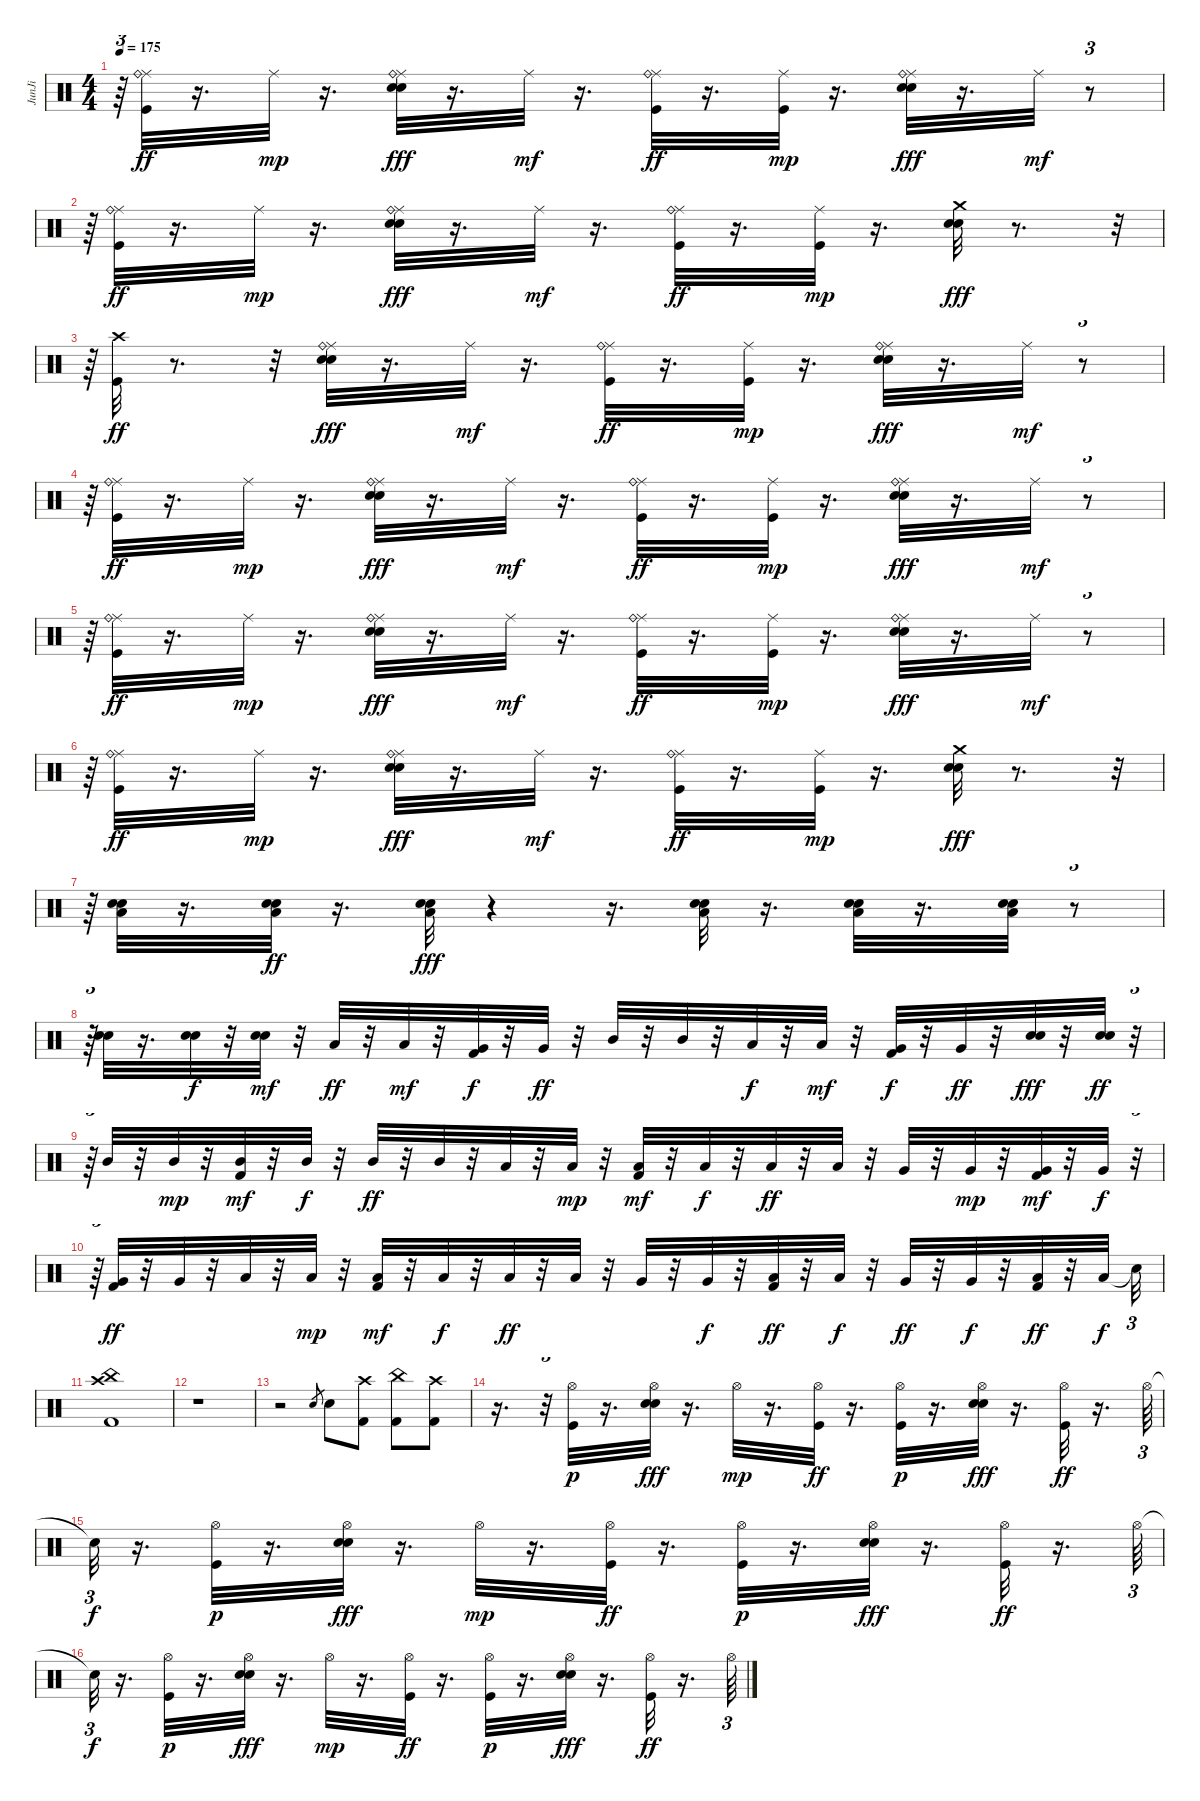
\track ("JunJi" "JunJi") {instrument percussion}
\staff {score}
\articulation defaults
\ts (4 4)
\tempo 175
\clef neutral
\ks c
r.64{tu (3 2) dy mf} ("Ride (middle)" "Ride (bell)" "Kick (hit)").32{dy ff} r.16{d} "Ride (middle)".32{dy mp} r.16{d} ("Ride (middle)" "Ride (bell)" "Electric Snare (hit)" "Snare (hit) 2").32{dy fff} r.16{d} "Ride (middle)".32{dy mf} r.16{d} ("Ride (middle)" "Ride (bell)" "Kick (hit)").32{dy ff} r.16{d} ("Ride (middle)" "Kick (hit)").32{dy mp} r.16{d} ("Ride (middle)" "Ride (bell)" "Electric Snare (hit)" "Snare (hit) 2").32{dy fff} r.16{d} "Ride (middle)".32{dy mf} r.8{tu (3 2)} |
r.64{tu (3 2)} ("Ride (middle)" "Ride (bell)" "Kick (hit)").32{dy ff} r.16{d} "Ride (middle)".32{dy mp} r.16{d} ("Ride (middle)" "Ride (bell)" "Electric Snare (hit)" "Snare (hit) 2").32{dy fff} r.16{d} "Ride (middle)".32{dy mf} r.16{d} ("Ride (middle)" "Ride (bell)" "Kick (hit)").32{dy ff} r.16{d} ("Ride (middle)" "Kick (hit)").32{dy mp} r.16{d} ("Crash medium (hit)" "Electric Snare (hit)" "Snare (hit) 2").32{dy fff} r.8{d} r.32{tu (3 2)} |
r.64{tu (3 2)} ("Crash high (hit)" "Kick (hit)").32{dy ff} r.8{d} r.32 ("Ride (middle)" "Ride (bell)" "Electric Snare (hit)" "Snare (hit) 2").32{dy fff} r.16{d} "Ride (middle)".32{dy mf} r.16{d} ("Ride (middle)" "Ride (bell)" "Kick (hit)").32{dy ff} r.16{d} ("Ride (middle)" "Kick (hit)").32{dy mp} r.16{d} ("Ride (middle)" "Ride (bell)" "Electric Snare (hit)" "Snare (hit) 2").32{dy fff} r.16{d} "Ride (middle)".32{dy mf} r.8{tu (3 2)} |
r.64{tu (3 2)} ("Ride (middle)" "Ride (bell)" "Kick (hit)").32{dy ff} r.16{d} "Ride (middle)".32{dy mp} r.16{d} ("Ride (middle)" "Ride (bell)" "Electric Snare (hit)" "Snare (hit) 2").32{dy fff} r.16{d} "Ride (middle)".32{dy mf} r.16{d} ("Ride (middle)" "Ride (bell)" "Kick (hit)").32{dy ff} r.16{d} ("Ride (middle)" "Kick (hit)").32{dy mp} r.16{d} ("Ride (middle)" "Ride (bell)" "Electric Snare (hit)" "Snare (hit) 2").32{dy fff} r.16{d} "Ride (middle)".32{dy mf} r.8{tu (3 2)} |
r.64{tu (3 2)} ("Ride (middle)" "Ride (bell)" "Kick (hit)").32{dy ff} r.16{d} "Ride (middle)".32{dy mp} r.16{d} ("Ride (middle)" "Ride (bell)" "Electric Snare (hit)" "Snare (hit) 2").32{dy fff} r.16{d} "Ride (middle)".32{dy mf} r.16{d} ("Ride (middle)" "Ride (bell)" "Kick (hit)").32{dy ff} r.16{d} ("Ride (middle)" "Kick (hit)").32{dy mp} r.16{d} ("Ride (middle)" "Ride (bell)" "Electric Snare (hit)" "Snare (hit) 2").32{dy fff} r.16{d} "Ride (middle)".32{dy mf} r.8{tu (3 2)} |
r.64{tu (3 2)} ("Ride (middle)" "Ride (bell)" "Kick (hit)").32{dy ff} r.16{d} "Ride (middle)".32{dy mp} r.16{d} ("Ride (middle)" "Ride (bell)" "Electric Snare (hit)" "Snare (hit) 2").32{dy fff} r.16{d} "Ride (middle)".32{dy mf} r.16{d} ("Ride (middle)" "Ride (bell)" "Kick (hit)").32{dy ff} r.16{d} ("Ride (middle)" "Kick (hit)").32{dy mp} r.16{d} ("Crash medium (hit)" "Electric Snare (hit)" "Snare (hit) 2").32{dy fff} r.8{d} r.32{tu (3 2)} |
r.64{tu (3 2)} ("Electric Snare (hit)" "Low Floor Tom (hit)" "Snare (hit) 2").32 r.16{d} ("Electric Snare (hit)" "Low Floor Tom (hit)" "Snare (hit) 2").32{dy ff} r.16{d} ("Electric Snare (hit)" "Low Floor Tom (hit)" "Snare (hit) 2").32{dy fff} r.4 r.16{d} ("Electric Snare (hit)" "Low Floor Tom (hit)" "Snare (hit) 2").32 r.16{d} ("Electric Snare (hit)" "Low Floor Tom (hit)" "Snare (hit) 2").32 r.16{d} ("Electric Snare (hit)" "Low Floor Tom (hit)" "Snare (hit) 2").32 r.8{tu (3 2)} |
r.64{tu (3 2)} ("Electric Snare (hit)" "Snare (hit) 2").32 r.16{d} ("Electric Snare (hit)" "Snare (hit) 2").32{dy f} r.32 ("Electric Snare (hit)" "Snare (hit) 2").32{dy mf} r.32 "Low Tom (hit)".32{dy ff} r.32 "Low Tom (hit)".32{dy mf} r.32 ("Very Low Tom (hit)" "Kick (hit) 2").32{dy f} r.32 "Very Low Tom (hit)".32{dy ff} r.32 "Mid Tom (hit)".32 r.32 "Mid Tom (hit)".32 r.32 "Low Tom (hit)".32{dy f} r.32 "Low Tom (hit)".32{dy mf} r.32 ("Very Low Tom (hit)" "Kick (hit) 2").32{dy f} r.32 "Very Low Tom (hit)".32{dy ff} r.32 ("Electric Snare (hit)" "Snare (hit) 2").32{dy fff} r.32 ("Electric Snare (hit)" "Snare (hit) 2").32{dy ff} r.32{tu (3 2)} |
r.64{tu (3 2)} "Mid Tom (hit)".32 r.32 "Mid Tom (hit)".32{dy mp} r.32 ("Mid Tom (hit)" "Kick (hit) 2").32{dy mf} r.32 "Mid Tom (hit)".32{dy f} r.32 "Mid Tom (hit)".32{dy ff} r.32 "Mid Tom (hit)".32 r.32 "Low Tom (hit)".32 r.32 "Low Tom (hit)".32{dy mp} r.32 ("Low Tom (hit)" "Kick (hit) 2").32{dy mf} r.32 "Low Tom (hit)".32{dy f} r.32 "Low Tom (hit)".32{dy ff} r.32 "Low Tom (hit)".32 r.32 "Very Low Tom (hit)".32 r.32 "Very Low Tom (hit)".32{dy mp} r.32 ("Very Low Tom (hit)" "Kick (hit) 2").32{dy mf} r.32 "Very Low Tom (hit)".32{dy f} r.32{tu (3 2)} |
r.64{tu (3 2)} ("Very Low Tom (hit)" "Kick (hit) 2").32{dy ff} r.32 "Very Low Tom (hit)".32 r.32 "Low Floor Tom (hit)".32 r.32 "Low Floor Tom (hit)".32{dy mp} r.32 ("Low Floor Tom (hit)" "Kick (hit) 2").32{dy mf} r.32 "Low Floor Tom (hit)".32{dy f} r.32 "Low Floor Tom (hit)".32{dy ff} r.32 "Low Floor Tom (hit)".32 r.32 "Very Low Tom (hit)".32 r.32 "Very Low Tom (hit)".32{dy f} r.32 ("Low Floor Tom (hit)" "Kick (hit) 2").32{dy ff} r.32 "Low Floor Tom (hit)".32{dy f} r.32 "Very Low Tom (hit)".32{dy ff} r.32 "Very Low Tom (hit)".32{dy f} r.32 ("Low Floor Tom (hit)" "Kick (hit) 2").32{dy ff} r.32 "Low Floor Tom (hit)".32{dy f} "Snare (hit)"{t}.32{tu (3 2)} |
("Crash high (hit)" "China (hit)" "Kick (hit) 2").1 |
r.1 |
r.2 "Snare (hit) 2".8{gr} "Snare (hit) 2".8 ("Crash high (hit)" "Kick (hit) 2").8 ("China (hit)" "Kick (hit) 2").8 ("Crash high (hit)" "Kick (hit) 2").8 |
r.16{d} r.32{tu (3 2)} ("Hi-Hat (open)" "Kick (hit)").32{dy p} r.16{d} ("Hi-Hat (open)" "Electric Snare (hit)" "Snare (hit) 2").32{dy fff} r.16{d} "Hi-Hat (open)".32{dy mp} r.16{d} ("Hi-Hat (open)" "Kick (hit)").32{dy ff} r.16{d} ("Hi-Hat (open)" "Kick (hit)").32{dy p} r.16{d} ("Hi-Hat (open)" "Electric Snare (hit)" "Snare (hit) 2").32{dy fff} r.16{d} ("Hi-Hat (open)" "Kick (hit)").32{dy ff} r.16{d} "Hi-Hat (open)".64{tu (3 2)} |
"Snare (hit)"{t}.32{tu (3 2) dy f} r.16{d} ("Hi-Hat (open)" "Kick (hit)").32{dy p} r.16{d} ("Hi-Hat (open)" "Electric Snare (hit)" "Snare (hit) 2").32{dy fff} r.16{d} "Hi-Hat (open)".32{dy mp} r.16{d} ("Hi-Hat (open)" "Kick (hit)").32{dy ff} r.16{d} ("Hi-Hat (open)" "Kick (hit)").32{dy p} r.16{d} ("Hi-Hat (open)" "Electric Snare (hit)" "Snare (hit) 2").32{dy fff} r.16{d} ("Hi-Hat (open)" "Kick (hit)").32{dy ff} r.16{d} "Hi-Hat (open)".64{tu (3 2)} |
"Snare (hit)"{t}.32{tu (3 2) dy f} r.16{d} ("Hi-Hat (open)" "Kick (hit)").32{dy p} r.16{d} ("Hi-Hat (open)" "Electric Snare (hit)" "Snare (hit) 2").32{dy fff} r.16{d} "Hi-Hat (open)".32{dy mp} r.16{d} ("Hi-Hat (open)" "Kick (hit)").32{dy ff} r.16{d} ("Hi-Hat (open)" "Kick (hit)").32{dy p} r.16{d} ("Hi-Hat (open)" "Electric Snare (hit)" "Snare (hit) 2").32{dy fff} r.16{d} ("Hi-Hat (open)" "Kick (hit)").32{dy ff} r.16{d} "Hi-Hat (open)".64{tu (3 2)}
